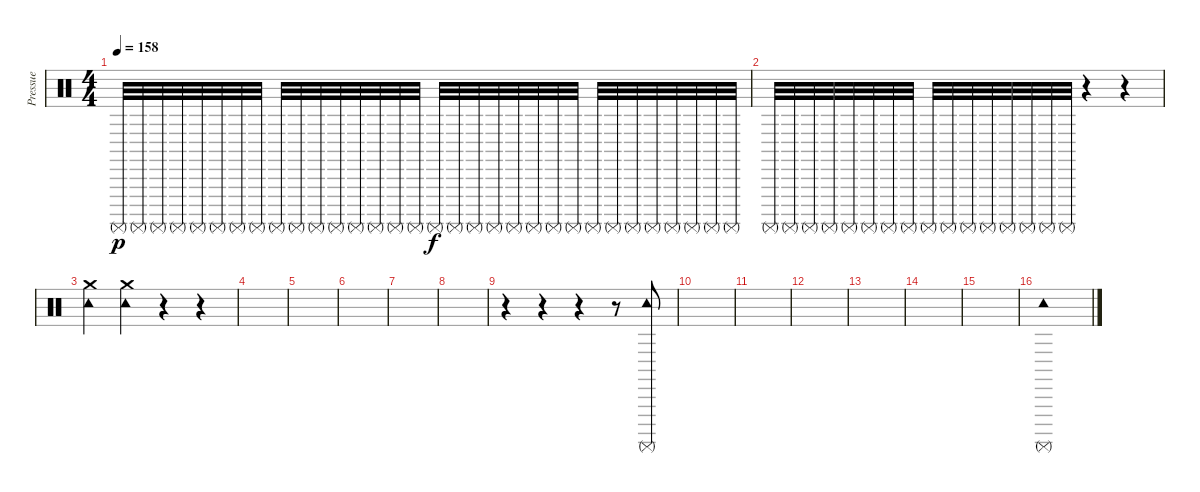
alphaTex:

\track ("Pressue" "Pressue") {instrument percussion}
\staff {score}
\articulation defaults
\ts (4 4)
\tempo 158
\clef neutral
\ks c "Surdo (mute)".32{dy p} "Surdo (mute)".32 "Surdo (mute)".32 "Surdo (mute)".32 "Surdo (mute)".32 "Surdo (mute)".32 "Surdo (mute)".32 "Surdo (mute)".32 "Surdo (mute)".32 "Surdo (mute)".32 "Surdo (mute)".32 "Surdo (mute)".32 "Surdo (mute)".32 "Surdo (mute)".32 "Surdo (mute)".32 "Surdo (mute)".32 "Surdo (mute)".32{dy f} "Surdo (mute)".32 "Surdo (mute)".32 "Surdo (mute)".32 "Surdo (mute)".32 "Surdo (mute)".32 "Surdo (mute)".32 "Surdo (mute)".32 "Surdo (mute)".32 "Surdo (mute)".32 "Surdo (mute)".32 "Surdo (mute)".32 "Surdo (mute)".32 "Surdo (mute)".32 "Surdo (mute)".32 "Surdo (mute)".32
|
"Surdo (mute)".32 "Surdo (mute)".32 "Surdo (mute)".32 "Surdo (mute)".32 "Surdo (mute)".32 "Surdo (mute)".32 "Surdo (mute)".32 "Surdo (mute)".32 "Surdo (mute)".32 "Surdo (mute)".32 "Surdo (mute)".32 "Surdo (mute)".32 "Surdo (mute)".32 "Surdo (mute)".32 "Surdo (mute)".32 "Surdo (mute)".32 r.4 r.4 |
("Tambourine (hit)" "Crash medium (hit)").4 ("Tambourine (hit)" "Crash medium (hit)").4 r.4 r.4 |
|
|
|
|
|
r.4 r.4 r.4 r.8 ("Tambourine (hit)" "Surdo (mute)").8 |
|
|
|
|
|
|
("Tambourine (hit)" "Surdo (mute)").1
